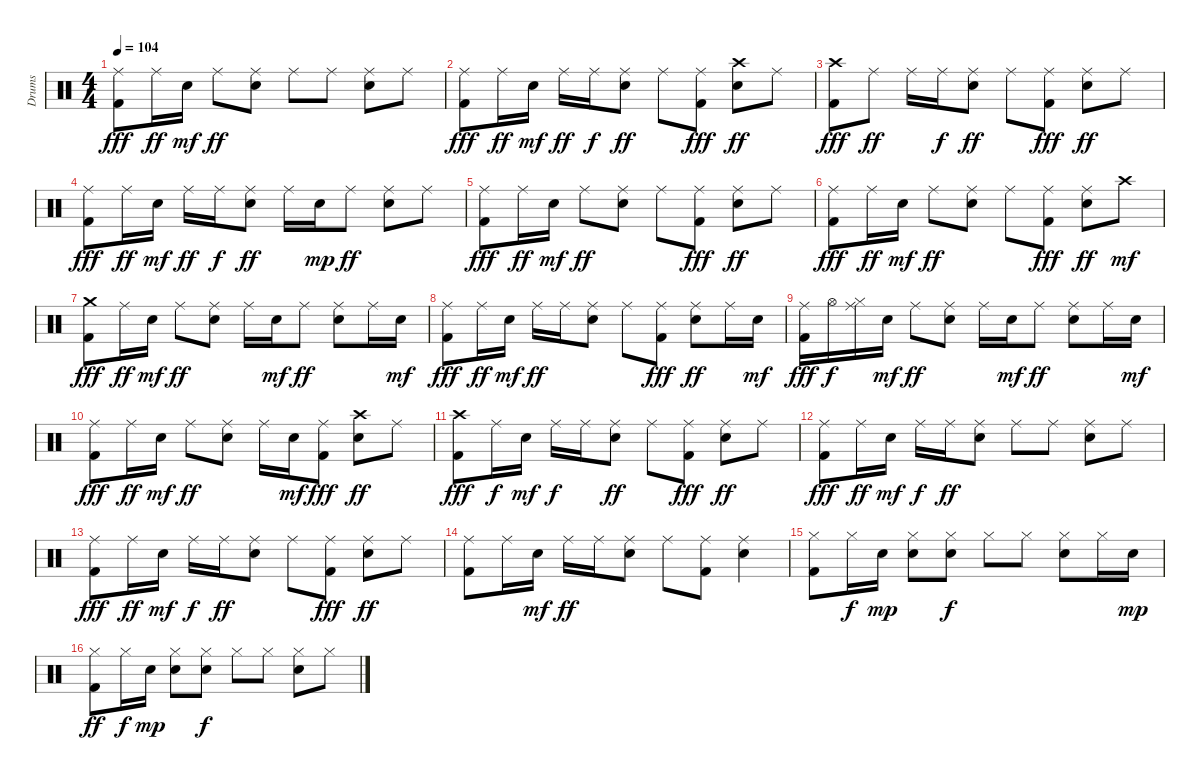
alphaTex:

\track ("Drums" "Drums") {instrument percussion}
\staff {score}
\articulation defaults
\ts (4 4)
\tempo 104
\clef neutral
\ks c
("Ride (middle)" "Kick (hit) 2").8{dy fff} "Ride (middle)".16{dy ff} "Electric Snare (hit)".16{dy mf} "Ride (middle)".8{dy ff} ("Ride (middle)" "Electric Snare (hit)").8 "Ride (middle)".8 "Ride (middle)".8 ("Ride (middle)" "Electric Snare (hit)").8 "Ride (middle)".8 |
("Ride (middle)" "Kick (hit) 2").8{dy fff} "Ride (middle)".16{dy ff} "Electric Snare (hit)".16{dy mf} "Ride (middle)".16{dy ff} "Ride (middle)".16{dy f} ("Ride (middle)" "Electric Snare (hit)").8{dy ff} "Ride (middle)".8 ("Ride (middle)" "Kick (hit) 2").8{dy fff} ("Crash high (hit)" "Electric Snare (hit)").8{dy ff} "Ride (middle)".8 |
("Crash high (hit)" "Kick (hit) 2").8{dy fff} "Ride (middle)".8{dy ff} "Ride (middle)".16 "Ride (middle)".16{dy f} ("Ride (middle)" "Electric Snare (hit)").8{dy ff} "Ride (middle)".8 ("Ride (middle)" "Kick (hit) 2").8{dy fff} ("Ride (middle)" "Electric Snare (hit)").8{dy ff} "Ride (middle)".8 |
("Ride (middle)" "Kick (hit) 2").8{dy fff} "Ride (middle)".16{dy ff} "Electric Snare (hit)".16{dy mf} "Ride (middle)".16{dy ff} "Ride (middle)".16{dy f} ("Ride (middle)" "Electric Snare (hit)").8{dy ff} "Ride (middle)".16 "Electric Snare (hit)".16{dy mp} "Ride (middle)".8{dy ff} ("Ride (middle)" "Electric Snare (hit)").8 "Ride (middle)".8 |
("Ride (middle)" "Kick (hit) 2").8{dy fff} "Ride (middle)".16{dy ff} "Electric Snare (hit)".16{dy mf} "Ride (middle)".8{dy ff} ("Ride (middle)" "Electric Snare (hit)").8 "Ride (middle)".8 ("Ride (middle)" "Kick (hit) 2").8{dy fff} ("Ride (middle)" "Electric Snare (hit)").8{dy ff} "Ride (middle)".8 |
("Ride (middle)" "Kick (hit) 2").8{dy fff} "Ride (middle)".16{dy ff} "Electric Snare (hit)".16{dy mf} "Ride (middle)".8{dy ff} ("Ride (middle)" "Electric Snare (hit)").8 "Ride (middle)".8 ("Ride (middle)" "Kick (hit) 2").8{dy fff} ("Ride (middle)" "Electric Snare (hit)").8{dy ff} "Crash high (hit)".8{dy mf} |
("Crash medium (hit)" "Kick (hit) 2").8{dy fff} "Ride (middle)".16{dy ff} "Electric Snare (hit)".16{dy mf} "Ride (middle)".8{dy ff} ("Ride (middle)" "Electric Snare (hit)").8 "Ride (middle)".16 "Electric Snare (hit)".16{dy mf} "Ride (middle)".8{dy ff} ("Ride (middle)" "Electric Snare (hit)").8 "Ride (middle)".16 "Electric Snare (hit)".16{dy mf} |
("Ride (middle)" "Kick (hit) 2").8{dy fff} "Ride (middle)".16{dy ff} "Electric Snare (hit)".16{dy mf} "Ride (middle)".16{dy ff} "Ride (middle)".16 ("Ride (middle)" "Electric Snare (hit)").8 "Ride (middle)".8 ("Ride (middle)" "Kick (hit) 2").8{dy fff} ("Ride (middle)" "Electric Snare (hit)").8{dy ff} "Ride (middle)".16 "Electric Snare (hit)".16{dy mf} |
("Ride (middle)" "Kick (hit) 2").16{dy fff} "Hi-Hat (open)".16{dy f} ("Ride (middle)" "Hi-Hat (closed)").16 "Electric Snare (hit)".16{dy mf} "Ride (middle)".8{dy ff} ("Ride (middle)" "Electric Snare (hit)").8 "Ride (middle)".16 "Electric Snare (hit)".16{dy mf} "Ride (middle)".8{dy ff} ("Ride (middle)" "Electric Snare (hit)").8 "Ride (middle)".16 "Electric Snare (hit)".16{dy mf} |
("Ride (middle)" "Kick (hit) 2").8{dy fff} "Ride (middle)".16{dy ff} "Electric Snare (hit)".16{dy mf} "Ride (middle)".8{dy ff} ("Ride (middle)" "Electric Snare (hit)").8 "Ride (middle)".16 "Electric Snare (hit)".16{dy mf} ("Ride (middle)" "Kick (hit) 2").8{dy fff} ("Crash high (hit)" "Electric Snare (hit)").8{dy ff} "Ride (middle)".8 |
("Crash high (hit)" "Kick (hit) 2").8{dy fff} "Ride (middle)".16{dy f} "Electric Snare (hit)".16{dy mf} "Ride (middle)".16{dy f} "Ride (middle)".16 ("Ride (middle)" "Electric Snare (hit)").8{dy ff} "Ride (middle)".8 ("Ride (middle)" "Kick (hit) 2").8{dy fff} ("Ride (middle)" "Electric Snare (hit)").8{dy ff} "Ride (middle)".8 |
("Ride (middle)" "Kick (hit) 2").8{dy fff} "Ride (middle)".16{dy ff} "Electric Snare (hit)".16{dy mf} "Ride (middle)".16{dy f} "Ride (middle)".16{dy ff} ("Ride (middle)" "Electric Snare (hit)").8 "Ride (middle)".8 "Ride (middle)".8 ("Ride (middle)" "Electric Snare (hit)").8 "Ride (middle)".8 |
("Ride (middle)" "Kick (hit) 2").8{dy fff} "Ride (middle)".16{dy ff} "Electric Snare (hit)".16{dy mf} "Ride (middle)".16{dy f} "Ride (middle)".16{dy ff} ("Ride (middle)" "Electric Snare (hit)").8 "Ride (middle)".8 ("Ride (middle)" "Kick (hit) 2").8{dy fff} ("Ride (middle)" "Electric Snare (hit)").8{dy ff} "Ride (middle)".8 |
("Ride (middle)" "Kick (hit) 2").8 "Ride (middle)".16 "Electric Snare (hit)".16{dy mf} "Ride (middle)".16{dy ff} "Ride (middle)".16 ("Ride (middle)" "Electric Snare (hit)").8 "Ride (middle)".8 ("Ride (middle)" "Kick (hit) 2").8 ("Ride (middle)" "Electric Snare (hit)").4 |
("Hi-Hat (closed)" "Kick (hit) 2").8 "Hi-Hat (closed)".16{dy f} "Electric Snare (hit)".16{dy mp} ("Hi-Hat (closed)" "Electric Snare (hit)").8 ("Hi-Hat (closed)" "Electric Snare (hit)").8{dy f} "Hi-Hat (closed)".8 "Hi-Hat (closed)".8 ("Hi-Hat (closed)" "Electric Snare (hit)").8 "Hi-Hat (closed)".16 "Electric Snare (hit)".16{dy mp} |
("Hi-Hat (closed)" "Kick (hit) 2").8{dy ff} "Hi-Hat (closed)".16{dy f} "Electric Snare (hit)".16{dy mp} ("Hi-Hat (closed)" "Electric Snare (hit)").8 ("Hi-Hat (closed)" "Electric Snare (hit)").8{dy f} "Hi-Hat (closed)".8 "Hi-Hat (closed)".8 ("Hi-Hat (closed)" "Electric Snare (hit)").8 "Hi-Hat (closed)".8
